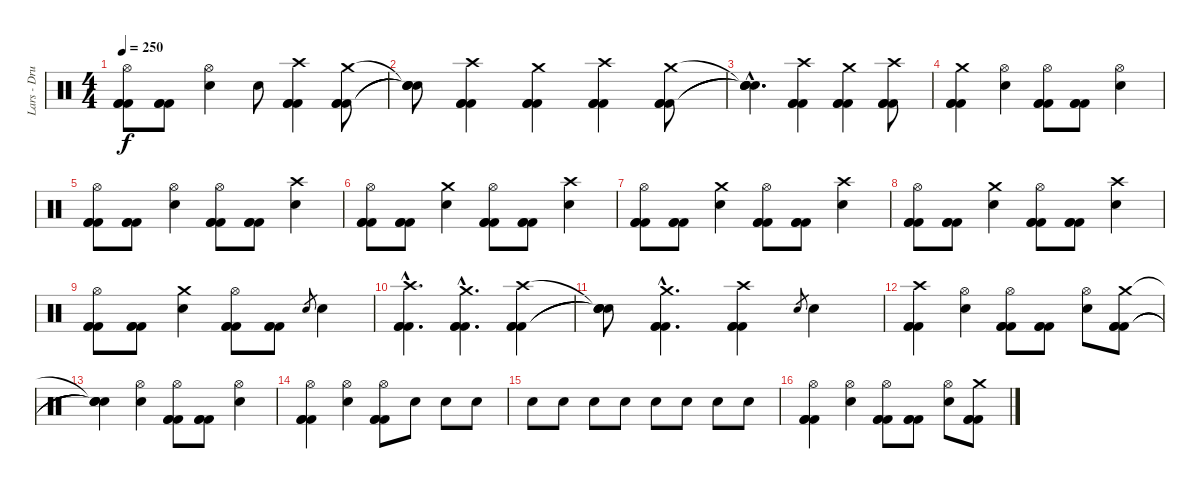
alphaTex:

\track ("Lars - Drums" "Lars - Dru") {instrument percussion}
\staff {score}
\articulation defaults
\ts (4 4)
\tempo 250
\clef neutral
\ks c
("Hi-Hat (open)" "Kick (hit) 2" "Kick (hit) 2" "Kick (hit) 2").8{dy f} ("Kick (hit) 2" "Kick (hit) 2" "Kick (hit) 2").8 ("Hi-Hat (open)" "Snare (hit) 2").4 "Snare (hit) 2".8 ("Crash high (hit)" "Kick (hit) 2" "Kick (hit) 2" "Kick (hit) 2").4 ("Crash medium (hit)" "Kick (hit) 2" "Kick (hit) 2" "Kick (hit) 2").8 |
("Snare (hit)"{t} "Snare (hit)"{t} "Snare (hit)"{t} "Snare (hit)"{t}).8 ("Crash high (hit)" "Kick (hit) 2" "Kick (hit) 2" "Kick (hit) 2").4 ("Crash medium (hit)" "Kick (hit) 2" "Kick (hit) 2" "Kick (hit) 2").4 ("Crash high (hit)" "Kick (hit) 2" "Kick (hit) 2" "Kick (hit) 2").4 ("Crash medium (hit)" "Kick (hit) 2" "Kick (hit) 2" "Kick (hit) 2").8 |
("Snare (hit)"{hac t} "Snare (hit)"{hac t} "Snare (hit)"{hac t} "Snare (hit)"{hac t}).4{d} ("Crash high (hit)" "Kick (hit) 2" "Kick (hit) 2" "Kick (hit) 2").4 ("Crash medium (hit)" "Kick (hit) 2" "Kick (hit) 2" "Kick (hit) 2").4 ("Crash high (hit)" "Kick (hit) 2" "Kick (hit) 2" "Kick (hit) 2").8 |
("Crash medium (hit)" "Kick (hit) 2" "Kick (hit) 2" "Kick (hit) 2").4 ("Hi-Hat (open)" "Snare (hit) 2").4 ("Hi-Hat (open)" "Kick (hit) 2" "Kick (hit) 2" "Kick (hit) 2").8 ("Kick (hit) 2" "Kick (hit) 2" "Kick (hit) 2").8 ("Hi-Hat (open)" "Snare (hit) 2").4 |
("Hi-Hat (open)" "Kick (hit) 2" "Kick (hit) 2" "Kick (hit) 2").8 ("Kick (hit) 2" "Kick (hit) 2" "Kick (hit) 2").8 ("Hi-Hat (open)" "Snare (hit) 2").4 ("Hi-Hat (open)" "Kick (hit) 2" "Kick (hit) 2" "Kick (hit) 2").8 ("Kick (hit) 2" "Kick (hit) 2" "Kick (hit) 2").8 ("Crash high (hit)" "Snare (hit) 2").4 |
("Hi-Hat (open)" "Kick (hit) 2" "Kick (hit) 2" "Kick (hit) 2").8 ("Kick (hit) 2" "Kick (hit) 2" "Kick (hit) 2").8 ("Crash medium (hit)" "Snare (hit) 2").4 ("Hi-Hat (open)" "Kick (hit) 2" "Kick (hit) 2" "Kick (hit) 2").8 ("Kick (hit) 2" "Kick (hit) 2" "Kick (hit) 2").8 ("Crash high (hit)" "Snare (hit) 2").4 |
("Hi-Hat (open)" "Kick (hit) 2" "Kick (hit) 2" "Kick (hit) 2").8 ("Kick (hit) 2" "Kick (hit) 2" "Kick (hit) 2").8 ("Crash medium (hit)" "Snare (hit) 2").4 ("Hi-Hat (open)" "Kick (hit) 2" "Kick (hit) 2" "Kick (hit) 2").8 ("Kick (hit) 2" "Kick (hit) 2" "Kick (hit) 2").8 ("Crash high (hit)" "Snare (hit) 2").4 |
("Hi-Hat (open)" "Kick (hit) 2" "Kick (hit) 2" "Kick (hit) 2").8 ("Kick (hit) 2" "Kick (hit) 2" "Kick (hit) 2").8 ("Crash medium (hit)" "Snare (hit) 2").4 ("Hi-Hat (open)" "Kick (hit) 2" "Kick (hit) 2" "Kick (hit) 2").8 ("Kick (hit) 2" "Kick (hit) 2" "Kick (hit) 2").8 ("Crash high (hit)" "Snare (hit) 2").4 |
("Hi-Hat (open)" "Kick (hit) 2" "Kick (hit) 2" "Kick (hit) 2").8 ("Kick (hit) 2" "Kick (hit) 2" "Kick (hit) 2").8 ("Crash medium (hit)" "Snare (hit) 2").4 ("Hi-Hat (open)" "Kick (hit) 2" "Kick (hit) 2" "Kick (hit) 2").8 ("Kick (hit) 2" "Kick (hit) 2" "Kick (hit) 2").8 "Snare (hit) 2".8{gr} "Snare (hit) 2".4 |
("Crash high (hit)"{hac} "Kick (hit) 2"{hac} "Kick (hit) 2"{hac} "Kick (hit) 2"{hac}).4{d} ("Crash medium (hit)"{hac} "Kick (hit) 2"{hac} "Kick (hit) 2"{hac} "Kick (hit) 2"{hac}).4{d} ("Crash high (hit)" "Kick (hit) 2" "Kick (hit) 2" "Kick (hit) 2").4 |
("Snare (hit)"{t} "Snare (hit)"{t} "Snare (hit)"{t} "Snare (hit)"{t}).8 ("Crash medium (hit)"{hac} "Kick (hit) 2"{hac} "Kick (hit) 2"{hac} "Kick (hit) 2"{hac}).4{d} ("Crash high (hit)" "Kick (hit) 2" "Kick (hit) 2" "Kick (hit) 2").4 "Snare (hit) 2".8{gr} "Snare (hit) 2".4 |
("Crash high (hit)" "Kick (hit) 2" "Kick (hit) 2" "Kick (hit) 2").4 ("Hi-Hat (open)" "Snare (hit) 2").4 ("Hi-Hat (open)" "Kick (hit) 2" "Kick (hit) 2" "Kick (hit) 2").8 ("Kick (hit) 2" "Kick (hit) 2" "Kick (hit) 2").8 ("Hi-Hat (open)" "Snare (hit) 2").8 ("Crash medium (hit)" "Kick (hit) 2" "Kick (hit) 2" "Kick (hit) 2").8 |
("Snare (hit)"{t} "Snare (hit)"{t} "Snare (hit)"{t} "Snare (hit)"{t}).4 ("Hi-Hat (open)" "Snare (hit) 2").4 ("Hi-Hat (open)" "Kick (hit) 2" "Kick (hit) 2" "Kick (hit) 2").8 ("Kick (hit) 2" "Kick (hit) 2" "Kick (hit) 2").8 ("Hi-Hat (open)" "Snare (hit) 2").4 |
("Hi-Hat (open)" "Kick (hit) 2" "Kick (hit) 2" "Kick (hit) 2").4 ("Hi-Hat (open)" "Snare (hit) 2").4 ("Hi-Hat (open)" "Kick (hit) 2" "Kick (hit) 2" "Kick (hit) 2").8 "Snare (hit) 2".8 "Snare (hit) 2".8 "Snare (hit) 2".8 |
"Snare (hit) 2".8 "Snare (hit) 2".8 "Snare (hit) 2".8 "Snare (hit) 2".8 "Snare (hit) 2".8 "Snare (hit) 2".8 "Snare (hit) 2".8 "Snare (hit) 2".8 |
("Hi-Hat (open)" "Kick (hit) 2" "Kick (hit) 2" "Kick (hit) 2").4 ("Hi-Hat (open)" "Snare (hit) 2").4 ("Hi-Hat (open)" "Kick (hit) 2" "Kick (hit) 2" "Kick (hit) 2").8 ("Kick (hit) 2" "Kick (hit) 2" "Kick (hit) 2").8 ("Hi-Hat (open)" "Snare (hit) 2").8 ("Crash medium (hit)" "Kick (hit) 2" "Kick (hit) 2" "Kick (hit) 2").8
